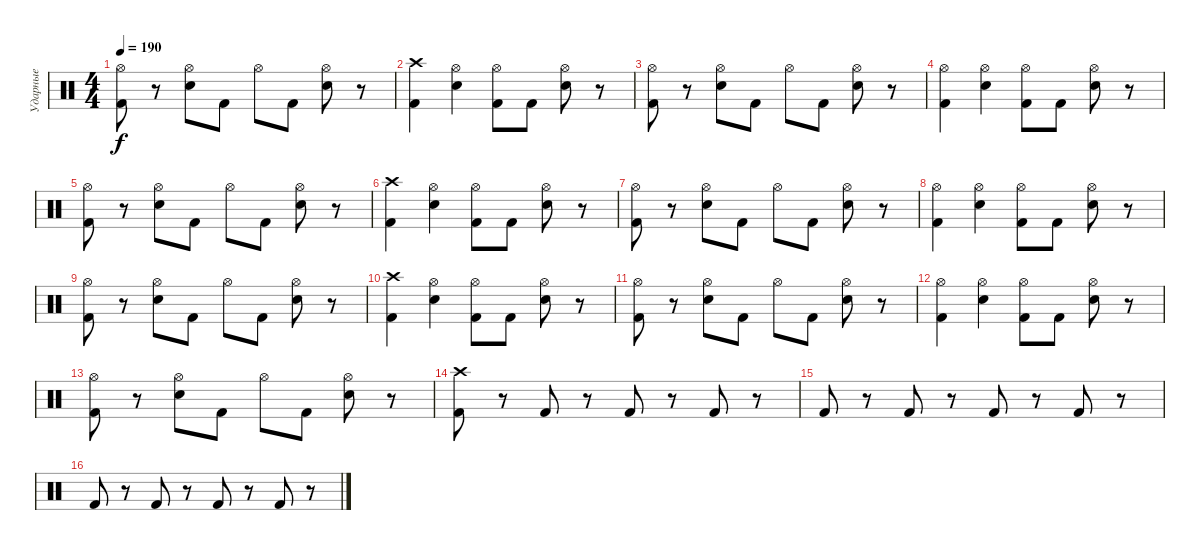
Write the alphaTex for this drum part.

\track ("Ударные" "Ударные") {instrument percussion}
\staff {score}
\articulation defaults
\ts (4 4)
\tempo 190
\clef neutral
\ks c
("Hi-Hat (open)" "Kick (hit) 2").8{dy f} r.8 ("Hi-Hat (open)" "Snare (hit) 2").8 "Kick (hit) 2".8 "Hi-Hat (open)".8 "Kick (hit) 2".8 ("Hi-Hat (open)" "Snare (hit) 2").8 r.8 |
("Crash high (hit)" "Kick (hit) 2").4 ("Hi-Hat (open)" "Snare (hit) 2").4 ("Hi-Hat (open)" "Kick (hit) 2").8 "Kick (hit) 2".8 ("Hi-Hat (open)" "Snare (hit) 2").8 r.8 |
("Hi-Hat (open)" "Kick (hit) 2").8 r.8 ("Hi-Hat (open)" "Snare (hit) 2").8 "Kick (hit) 2".8 "Hi-Hat (open)".8 "Kick (hit) 2".8 ("Hi-Hat (open)" "Snare (hit) 2").8 r.8 |
("Hi-Hat (open)" "Kick (hit) 2").4 ("Hi-Hat (open)" "Snare (hit) 2").4 ("Hi-Hat (open)" "Kick (hit) 2").8 "Kick (hit) 2".8 ("Hi-Hat (open)" "Snare (hit) 2").8 r.8 |
("Hi-Hat (open)" "Kick (hit) 2").8 r.8 ("Hi-Hat (open)" "Snare (hit) 2").8 "Kick (hit) 2".8 "Hi-Hat (open)".8 "Kick (hit) 2".8 ("Hi-Hat (open)" "Snare (hit) 2").8 r.8 |
("Crash high (hit)" "Kick (hit) 2").4 ("Hi-Hat (open)" "Snare (hit) 2").4 ("Hi-Hat (open)" "Kick (hit) 2").8 "Kick (hit) 2".8 ("Hi-Hat (open)" "Snare (hit) 2").8 r.8 |
("Hi-Hat (open)" "Kick (hit) 2").8 r.8 ("Hi-Hat (open)" "Snare (hit) 2").8 "Kick (hit) 2".8 "Hi-Hat (open)".8 "Kick (hit) 2".8 ("Hi-Hat (open)" "Snare (hit) 2").8 r.8 |
("Hi-Hat (open)" "Kick (hit) 2").4 ("Hi-Hat (open)" "Snare (hit) 2").4 ("Hi-Hat (open)" "Kick (hit) 2").8 "Kick (hit) 2".8 ("Hi-Hat (open)" "Snare (hit) 2").8 r.8 |
("Hi-Hat (open)" "Kick (hit) 2").8 r.8 ("Hi-Hat (open)" "Snare (hit) 2").8 "Kick (hit) 2".8 "Hi-Hat (open)".8 "Kick (hit) 2".8 ("Hi-Hat (open)" "Snare (hit) 2").8 r.8 |
("Crash high (hit)" "Kick (hit) 2").4 ("Hi-Hat (open)" "Snare (hit) 2").4 ("Hi-Hat (open)" "Kick (hit) 2").8 "Kick (hit) 2".8 ("Hi-Hat (open)" "Snare (hit) 2").8 r.8 |
("Hi-Hat (open)" "Kick (hit) 2").8 r.8 ("Hi-Hat (open)" "Snare (hit) 2").8 "Kick (hit) 2".8 "Hi-Hat (open)".8 "Kick (hit) 2".8 ("Hi-Hat (open)" "Snare (hit) 2").8 r.8 |
("Hi-Hat (open)" "Kick (hit) 2").4 ("Hi-Hat (open)" "Snare (hit) 2").4 ("Hi-Hat (open)" "Kick (hit) 2").8 "Kick (hit) 2".8 ("Hi-Hat (open)" "Snare (hit) 2").8 r.8 |
("Hi-Hat (open)" "Kick (hit) 2").8 r.8 ("Hi-Hat (open)" "Snare (hit) 2").8 "Kick (hit) 2".8 "Hi-Hat (open)".8 "Kick (hit) 2".8 ("Hi-Hat (open)" "Snare (hit) 2").8 r.8 |
("Crash high (hit)" "Kick (hit) 2").8 r.8 "Kick (hit) 2".8 r.8 "Kick (hit) 2".8 r.8 "Kick (hit) 2".8 r.8 |
"Kick (hit) 2".8 r.8 "Kick (hit) 2".8 r.8 "Kick (hit) 2".8 r.8 "Kick (hit) 2".8 r.8 |
"Kick (hit) 2".8 r.8 "Kick (hit) 2".8 r.8 "Kick (hit) 2".8 r.8 "Kick (hit) 2".8 r.8
